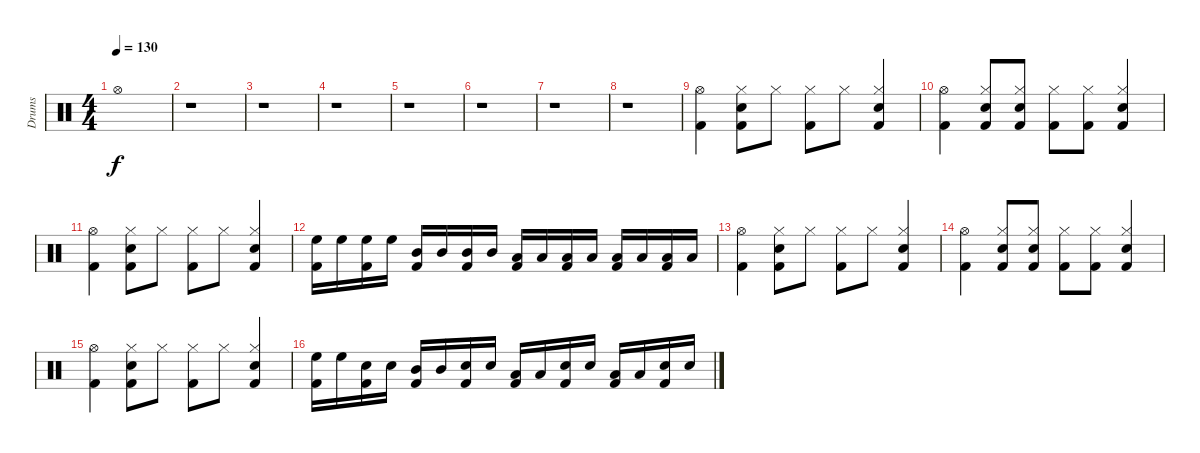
\track ("Drums" "Drums") {instrument percussion}
\staff {score}
\articulation defaults
\ts (4 4)
\tempo 130
\clef neutral
\ks c "Hi-Hat (open)".1{dy f}
|
r.1 |
r.1 |
r.1 |
r.1 |
r.1 |
r.1 |
r.1 |
("Hi-Hat (open)" "Kick (hit) 2").4 ("Hi-Hat (closed)" "Snare (hit) 2" "Kick (hit) 2").8 "Hi-Hat (closed)".8 ("Hi-Hat (closed)" "Kick (hit) 2").8 "Hi-Hat (closed)".8 ("Hi-Hat (closed)" "Snare (hit) 2" "Kick (hit) 2").4 |
("Hi-Hat (open)" "Kick (hit) 2").4 ("Hi-Hat (closed)" "Snare (hit) 2" "Kick (hit) 2").8 ("Hi-Hat (closed)" "Snare (hit) 2" "Kick (hit) 2").8 ("Hi-Hat (closed)" "Kick (hit) 2").8 ("Hi-Hat (closed)" "Kick (hit) 2").8 ("Hi-Hat (closed)" "Snare (hit) 2" "Kick (hit) 2").4 |
("Hi-Hat (open)" "Kick (hit) 2").4 ("Hi-Hat (closed)" "Snare (hit) 2" "Kick (hit) 2").8 "Hi-Hat (closed)".8 ("Hi-Hat (closed)" "Kick (hit) 2").8 "Hi-Hat (closed)".8 ("Hi-Hat (closed)" "Snare (hit) 2" "Kick (hit) 2").4 |
("High Floor Tom (hit)" "Kick (hit) 2").16 "High Floor Tom (hit)".16 ("High Floor Tom (hit)" "Kick (hit) 2").16 "High Floor Tom (hit)".16 ("Mid Tom (hit)" "Kick (hit) 2").16 "Mid Tom (hit)".16 ("Mid Tom (hit)" "Kick (hit) 2").16 "Mid Tom (hit)".16 ("Low Tom (hit)" "Kick (hit) 2").16 "Low Tom (hit)".16 ("Low Tom (hit)" "Kick (hit) 2").16 "Low Tom (hit)".16 ("Low Floor Tom (hit)" "Kick (hit) 2").16 "Low Floor Tom (hit)".16 ("Low Floor Tom (hit)" "Kick (hit) 2").16 "Low Floor Tom (hit)".16 |
("Hi-Hat (open)" "Kick (hit) 2").4 ("Hi-Hat (closed)" "Snare (hit) 2" "Kick (hit) 2").8 "Hi-Hat (closed)".8 ("Hi-Hat (closed)" "Kick (hit) 2").8 "Hi-Hat (closed)".8 ("Hi-Hat (closed)" "Snare (hit) 2" "Kick (hit) 2").4 |
("Hi-Hat (open)" "Kick (hit) 2").4 ("Hi-Hat (closed)" "Snare (hit) 2" "Kick (hit) 2").8 ("Hi-Hat (closed)" "Snare (hit) 2" "Kick (hit) 2").8 ("Hi-Hat (closed)" "Kick (hit) 2").8 ("Hi-Hat (closed)" "Kick (hit) 2").8 ("Hi-Hat (closed)" "Snare (hit) 2" "Kick (hit) 2").4 |
("Hi-Hat (open)" "Kick (hit) 2").4 ("Hi-Hat (closed)" "Snare (hit) 2" "Kick (hit) 2").8 "Hi-Hat (closed)".8 ("Hi-Hat (closed)" "Kick (hit) 2").8 "Hi-Hat (closed)".8 ("Hi-Hat (closed)" "Snare (hit) 2" "Kick (hit) 2").4 |
("High Floor Tom (hit)" "Kick (hit) 2").16 "High Floor Tom (hit)".16 ("Snare (hit) 2" "Kick (hit) 2").16 "Snare (hit) 2".16 ("Mid Tom (hit)" "Kick (hit) 2").16 "Mid Tom (hit)".16 ("Snare (hit) 2" "Kick (hit) 2").16 "Snare (hit) 2".16 ("Low Tom (hit)" "Kick (hit) 2").16 "Low Tom (hit)".16 ("Snare (hit) 2" "Kick (hit) 2").16 "Snare (hit) 2".16 ("Low Floor Tom (hit)" "Kick (hit) 2").16 "Low Floor Tom (hit)".16 ("Snare (hit) 2" "Kick (hit) 2").16 "Snare (hit) 2".16
